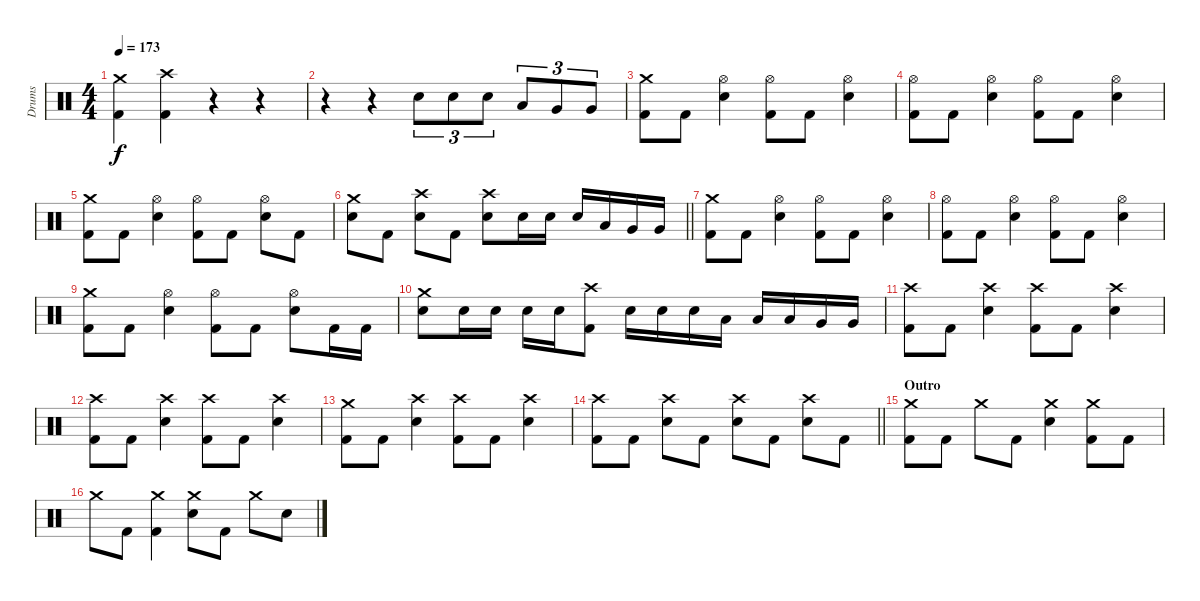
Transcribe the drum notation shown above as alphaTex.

\track ("Drums" "Drums") {instrument percussion}
\staff {score}
\articulation defaults
\ts (4 4)
\tempo 173
\clef neutral
\ks c
("Crash medium (hit)" "Kick (hit) 2").4{dy f} ("Crash high (hit)" "Kick (hit) 2").4 r.4 r.4 |
r.4 r.4 "Electric Snare (hit)".8{tu (3 2)} "Electric Snare (hit)".8{tu (3 2)} "Electric Snare (hit)".8{tu (3 2)} "Low Tom (hit)".8{tu (3 2)} "Very Low Tom (hit)".8{tu (3 2)} "Very Low Tom (hit)".8{tu (3 2)} |
("Crash medium (hit)" "Kick (hit) 2").8 "Kick (hit) 2".8 ("Hi-Hat (open)" "Electric Snare (hit)").4 ("Hi-Hat (open)" "Kick (hit) 2").8 "Kick (hit) 2".8 ("Hi-Hat (open)" "Electric Snare (hit)").4 |
("Hi-Hat (open)" "Kick (hit) 2").8 "Kick (hit) 2".8 ("Hi-Hat (open)" "Electric Snare (hit)").4 ("Hi-Hat (open)" "Kick (hit) 2").8 "Kick (hit) 2".8 ("Hi-Hat (open)" "Electric Snare (hit)").4 |
("Crash medium (hit)" "Kick (hit) 2").8 "Kick (hit) 2".8 ("Hi-Hat (open)" "Electric Snare (hit)").4 ("Hi-Hat (open)" "Kick (hit) 2").8 "Kick (hit) 2".8 ("Hi-Hat (open)" "Electric Snare (hit)").8 "Kick (hit) 2".8 |
\barLineRight lightlight
("Crash medium (hit)" "Electric Snare (hit)").8 "Kick (hit) 2".8 ("Crash high (hit)" "Electric Snare (hit)").8 "Kick (hit) 2".8 ("Crash high (hit)" "Electric Snare (hit)").8 "Electric Snare (hit)".16 "Electric Snare (hit)".16 "Electric Snare (hit)".16 "Low Tom (hit)".16 "Very Low Tom (hit)".16 "Very Low Tom (hit)".16 |
("Crash medium (hit)" "Kick (hit) 2").8 "Kick (hit) 2".8 ("Hi-Hat (open)" "Electric Snare (hit)").4 ("Hi-Hat (open)" "Kick (hit) 2").8 "Kick (hit) 2".8 ("Hi-Hat (open)" "Electric Snare (hit)").4 |
("Hi-Hat (open)" "Kick (hit) 2").8 "Kick (hit) 2".8 ("Hi-Hat (open)" "Electric Snare (hit)").4 ("Hi-Hat (open)" "Kick (hit) 2").8 "Kick (hit) 2".8 ("Hi-Hat (open)" "Electric Snare (hit)").4 |
("Crash medium (hit)" "Kick (hit) 2").8 "Kick (hit) 2".8 ("Hi-Hat (open)" "Electric Snare (hit)").4 ("Hi-Hat (open)" "Kick (hit) 2").8 "Kick (hit) 2".8 ("Hi-Hat (open)" "Electric Snare (hit)").8 "Kick (hit) 2".16 "Kick (hit) 2".16 |
("Crash medium (hit)" "Electric Snare (hit)").8 "Electric Snare (hit)".16 "Electric Snare (hit)".16 "Electric Snare (hit)".16 "Electric Snare (hit)".16 ("Crash high (hit)" "Kick (hit) 2").8 "Electric Snare (hit)".16 "Electric Snare (hit)".16 "Electric Snare (hit)".16 "Low Tom (hit)".16 "Low Tom (hit)".16 "Low Tom (hit)".16 "Very Low Tom (hit)".16 "Very Low Tom (hit)".16 |
("Crash high (hit)" "Kick (hit) 2").8 "Kick (hit) 2".8 ("Crash high (hit)" "Electric Snare (hit)").4 ("Crash high (hit)" "Kick (hit) 2").8 "Kick (hit) 2".8 ("Crash high (hit)" "Electric Snare (hit)").4 |
("Crash high (hit)" "Kick (hit) 2").8 "Kick (hit) 2".8 ("Crash high (hit)" "Electric Snare (hit)").4 ("Crash high (hit)" "Kick (hit) 2").8 "Kick (hit) 2".8 ("Crash high (hit)" "Electric Snare (hit)").4 |
("Crash medium (hit)" "Kick (hit) 2").8 "Kick (hit) 2".8 ("Crash high (hit)" "Electric Snare (hit)").4 ("Crash high (hit)" "Kick (hit) 2").8 "Kick (hit) 2".8 ("Crash high (hit)" "Electric Snare (hit)").4 |
\barLineRight lightlight
("Crash high (hit)" "Kick (hit) 2").8 "Kick (hit) 2".8 ("Crash high (hit)" "Electric Snare (hit)").8 "Kick (hit) 2".8 ("Crash high (hit)" "Electric Snare (hit)").8 "Kick (hit) 2".8 ("Crash high (hit)" "Electric Snare (hit)").8 "Kick (hit) 2".8 |
\section ("" "Outro")
("Crash medium (hit)" "Kick (hit) 2").8 "Kick (hit) 2".8 "Crash medium (hit)".8 "Kick (hit) 2".8 ("Crash medium (hit)" "Electric Snare (hit)").4 ("Crash medium (hit)" "Kick (hit) 2").8 "Kick (hit) 2".8 |
"Crash medium (hit)".8 "Kick (hit) 2".8 ("Crash medium (hit)" "Kick (hit) 2").4 ("Crash medium (hit)" "Electric Snare (hit)").8 "Kick (hit) 2".8 "Crash medium (hit)".8 "Electric Snare (hit)".8
